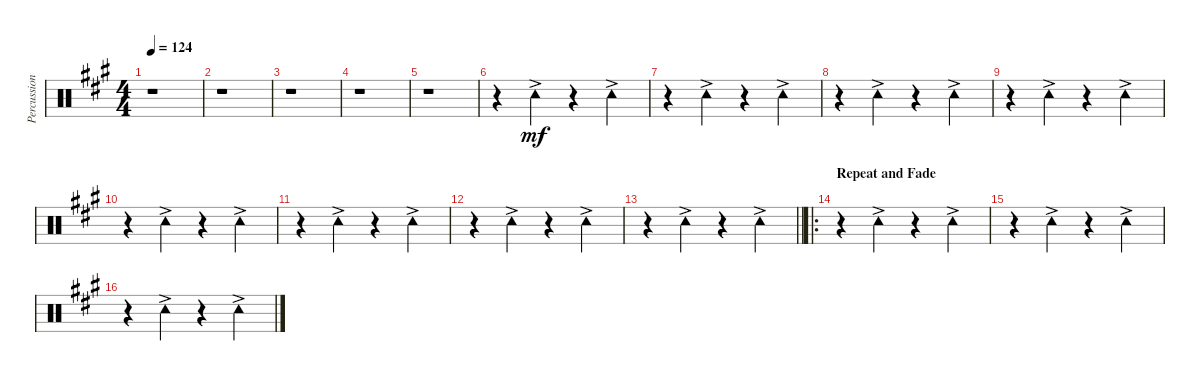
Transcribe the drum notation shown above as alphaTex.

\track ("Percussion" "Percussion") {instrument percussion}
\staff {score}
\articulation defaults
\ts (4 4)
\tempo 124
\clef neutral
\ks a
r.1{dy mf} |
r.1 |
r.1 |
r.1 |
r.1 |
r.4 "Tambourine (hit)"{ac}.4 r.4 "Tambourine (hit)"{ac}.4 |
r.4 "Tambourine (hit)"{ac}.4 r.4 "Tambourine (hit)"{ac}.4 |
r.4 "Tambourine (hit)"{ac}.4 r.4 "Tambourine (hit)"{ac}.4 |
r.4 "Tambourine (hit)"{ac}.4 r.4 "Tambourine (hit)"{ac}.4 |
r.4 "Tambourine (hit)"{ac}.4 r.4 "Tambourine (hit)"{ac}.4 |
r.4 "Tambourine (hit)"{ac}.4 r.4 "Tambourine (hit)"{ac}.4 |
r.4 "Tambourine (hit)"{ac}.4 r.4 "Tambourine (hit)"{ac}.4 |
\barLineRight lightlight
r.4 "Tambourine (hit)"{ac}.4 r.4 "Tambourine (hit)"{ac}.4 |
\ro
\section ("" "Repeat and Fade")
r.4 "Tambourine (hit)"{ac}.4 r.4 "Tambourine (hit)"{ac}.4 |
r.4 "Tambourine (hit)"{ac}.4 r.4 "Tambourine (hit)"{ac}.4 |
r.4 "Tambourine (hit)"{ac}.4 r.4 "Tambourine (hit)"{ac}.4
